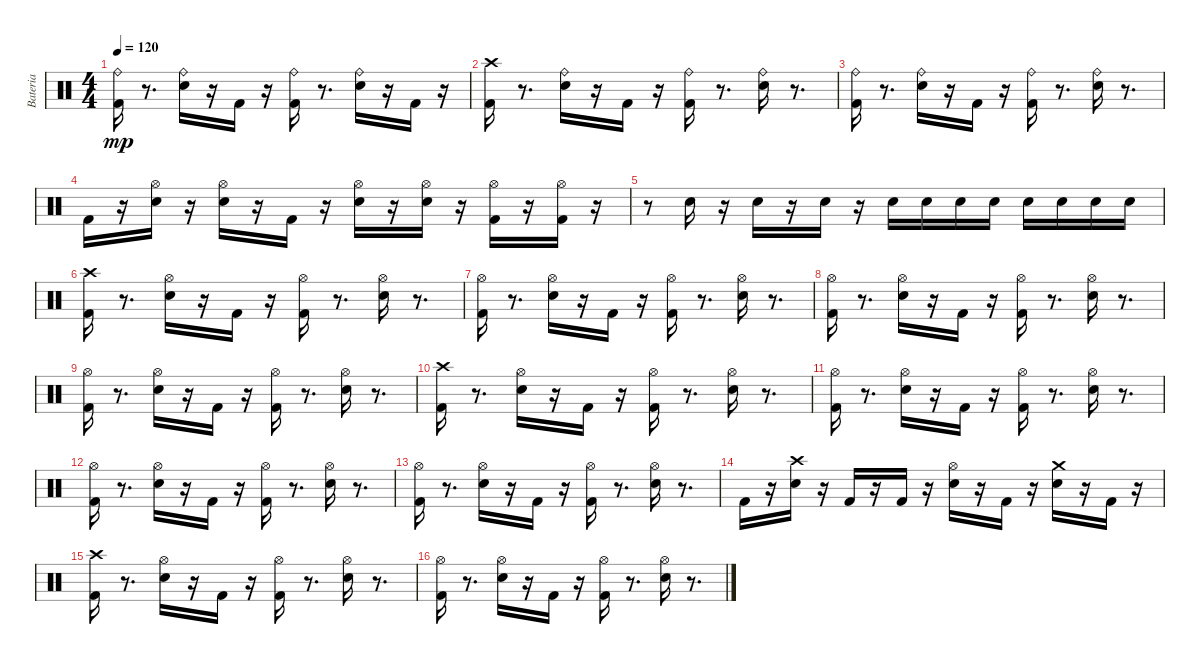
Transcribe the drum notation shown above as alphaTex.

\track ("Bateria" "Bateria") {instrument percussion}
\staff {score}
\articulation defaults
\ts (4 4)
\tempo 120
\clef neutral
\ks c
("Ride (bell)" "Kick (hit) 2").16{dy mp} r.8{d} ("Ride (bell)" "Snare (hit) 2").16 r.16 "Kick (hit) 2".16 r.16 ("Ride (bell)" "Kick (hit) 2").16 r.8{d} ("Ride (bell)" "Snare (hit) 2").16 r.16 "Kick (hit) 2".16 r.16 |
("Kick (hit) 2" "Crash high (hit)").16 r.8{d} ("Ride (bell)" "Snare (hit) 2").16 r.16 "Kick (hit) 2".16 r.16 ("Ride (bell)" "Kick (hit) 2").16 r.8{d} ("Ride (bell)" "Snare (hit) 2").16 r.8{d} |
("Ride (bell)" "Kick (hit) 2").16 r.8{d} ("Ride (bell)" "Snare (hit) 2").16 r.16 "Kick (hit) 2".16 r.16 ("Ride (bell)" "Kick (hit) 2").16 r.8{d} ("Ride (bell)" "Snare (hit) 2").16 r.8{d} |
"Kick (hit) 2".16 r.16 ("Hi-Hat (open)" "Snare (hit) 2").16 r.16 ("Hi-Hat (open)" "Snare (hit) 2").16 r.16 "Kick (hit) 2".16 r.16 ("Hi-Hat (open)" "Snare (hit) 2").16 r.16 ("Hi-Hat (open)" "Snare (hit) 2").16 r.16 ("Hi-Hat (open)" "Kick (hit) 2").16 r.16 ("Hi-Hat (open)" "Kick (hit) 2").16 r.16 |
r.8 "Snare (hit) 2".16 r.16 "Snare (hit) 2".16 r.16 "Snare (hit) 2".16 r.16 "Snare (hit) 2".16 "Snare (hit) 2".16 "Snare (hit) 2".16 "Snare (hit) 2".16 "Snare (hit) 2".16 "Snare (hit) 2".16 "Snare (hit) 2".16 "Snare (hit) 2".16 |
("Kick (hit) 2" "Crash high (hit)").16 r.8{d} ("Snare (hit) 2" "Hi-Hat (open)").16 r.16 "Kick (hit) 2".16 r.16 ("Hi-Hat (open)" "Kick (hit) 2").16 r.8{d} ("Hi-Hat (open)" "Snare (hit) 2").16 r.8{d} |
("Hi-Hat (open)" "Kick (hit) 2").16 r.8{d} ("Hi-Hat (open)" "Snare (hit) 2").16 r.16 "Kick (hit) 2".16 r.16 ("Hi-Hat (open)" "Kick (hit) 2").16 r.8{d} ("Hi-Hat (open)" "Snare (hit) 2").16 r.8{d} |
("Hi-Hat (open)" "Kick (hit) 2").16 r.8{d} ("Snare (hit) 2" "Hi-Hat (open)").16 r.16 "Kick (hit) 2".16 r.16 ("Hi-Hat (open)" "Kick (hit) 2").16 r.8{d} ("Hi-Hat (open)" "Snare (hit) 2").16 r.8{d} |
("Hi-Hat (open)" "Kick (hit) 2").16 r.8{d} ("Hi-Hat (open)" "Snare (hit) 2").16 r.16 "Kick (hit) 2".16 r.16 ("Hi-Hat (open)" "Kick (hit) 2").16 r.8{d} ("Hi-Hat (open)" "Snare (hit) 2").16 r.8{d} |
("Kick (hit) 2" "Crash high (hit)").16 r.8{d} ("Snare (hit) 2" "Hi-Hat (open)").16 r.16 "Kick (hit) 2".16 r.16 ("Hi-Hat (open)" "Kick (hit) 2").16 r.8{d} ("Hi-Hat (open)" "Snare (hit) 2").16 r.8{d} |
("Hi-Hat (open)" "Kick (hit) 2").16 r.8{d} ("Hi-Hat (open)" "Snare (hit) 2").16 r.16 "Kick (hit) 2".16 r.16 ("Hi-Hat (open)" "Kick (hit) 2").16 r.8{d} ("Hi-Hat (open)" "Snare (hit) 2").16 r.8{d} |
("Hi-Hat (open)" "Kick (hit) 2").16 r.8{d} ("Hi-Hat (open)" "Snare (hit) 2").16 r.16 "Kick (hit) 2".16 r.16 ("Hi-Hat (open)" "Kick (hit) 2").16 r.8{d} ("Hi-Hat (open)" "Snare (hit) 2").16 r.8{d} |
("Hi-Hat (open)" "Kick (hit) 2").16 r.8{d} ("Hi-Hat (open)" "Snare (hit) 2").16 r.16 "Kick (hit) 2".16 r.16 ("Hi-Hat (open)" "Kick (hit) 2").16 r.8{d} ("Hi-Hat (open)" "Snare (hit) 2").16 r.8{d} |
"Kick (hit) 2".16 r.16 ("Snare (hit) 2" "Crash high (hit)").16 r.16 "Kick (hit) 2".16 r.16 "Kick (hit) 2".16 r.16 ("Hi-Hat (open)" "Snare (hit) 2").16 r.16 "Kick (hit) 2".16 r.16 ("Snare (hit) 2" "Crash medium (hit)").16 r.16 "Kick (hit) 2".16 r.16 |
("Kick (hit) 2" "Crash high (hit)").16 r.8{d} ("Snare (hit) 2" "Hi-Hat (open)").16 r.16 "Kick (hit) 2".16 r.16 ("Hi-Hat (open)" "Kick (hit) 2").16 r.8{d} ("Hi-Hat (open)" "Snare (hit) 2").16 r.8{d} |
("Hi-Hat (open)" "Kick (hit) 2").16 r.8{d} ("Hi-Hat (open)" "Snare (hit) 2").16 r.16 "Kick (hit) 2".16 r.16 ("Hi-Hat (open)" "Kick (hit) 2").16 r.8{d} ("Hi-Hat (open)" "Snare (hit) 2").16 r.8{d}
